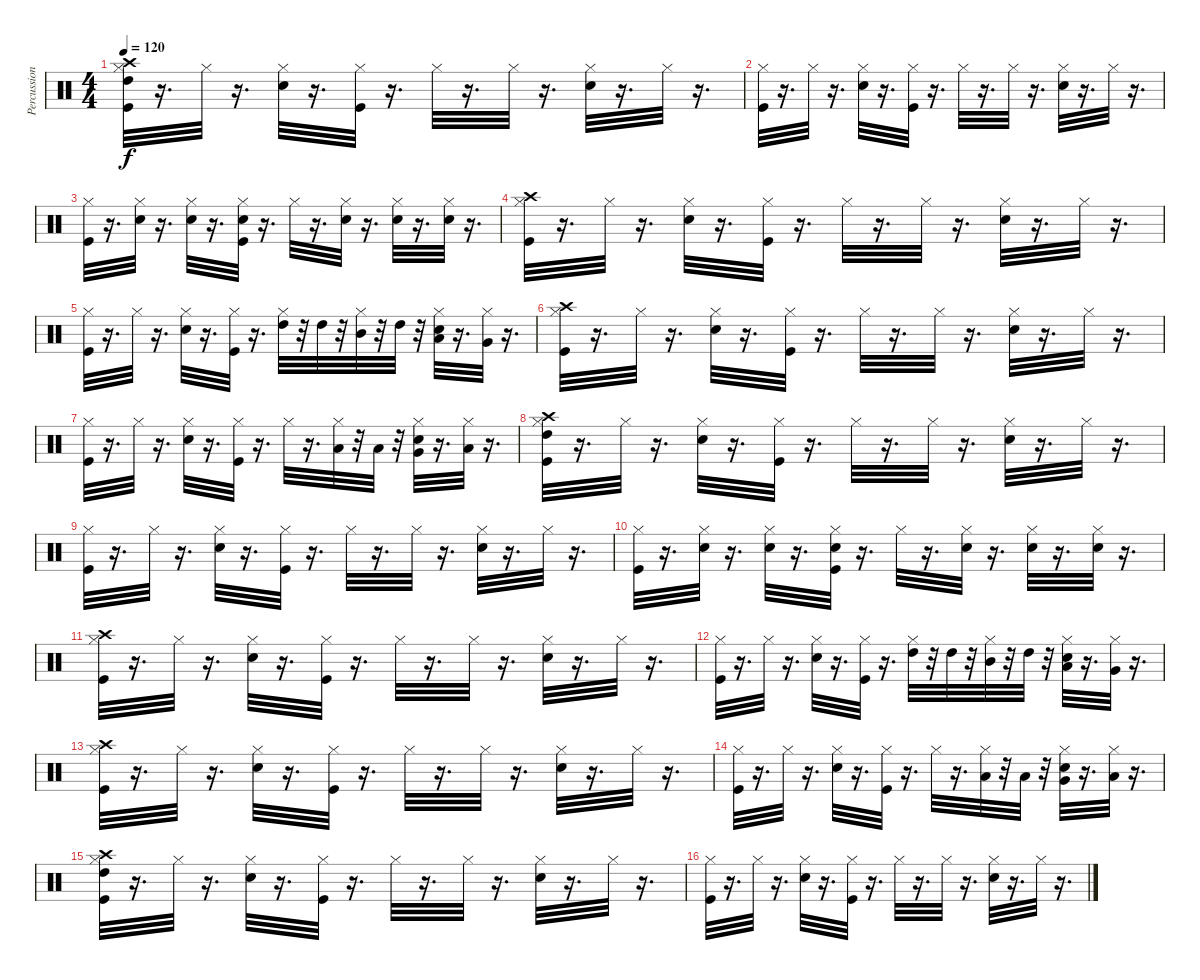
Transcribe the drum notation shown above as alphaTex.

\track ("Percussion" "Percussion") {instrument percussion}
\staff {score}
\articulation defaults
\ts (4 4)
\tempo 120
\clef neutral
\ks c
("Kick (hit)" "Hi-Hat (closed)" "High Tom (hit)" "Crash high (hit)").32{dy f} r.16{d} "Hi-Hat (closed)".32 r.16{d} ("Electric Snare (hit)" "Hi-Hat (closed)").32 r.16{d} ("Kick (hit)" "Hi-Hat (closed)").32 r.16{d} "Hi-Hat (closed)".32 r.16{d} "Hi-Hat (closed)".32 r.16{d} ("Electric Snare (hit)" "Hi-Hat (closed)").32 r.16{d} "Hi-Hat (closed)".32 r.16{d} |
("Kick (hit)" "Hi-Hat (closed)").32 r.16{d} "Hi-Hat (closed)".32 r.16{d} ("Electric Snare (hit)" "Hi-Hat (closed)").32 r.16{d} ("Kick (hit)" "Hi-Hat (closed)").32 r.16{d} "Hi-Hat (closed)".32 r.16{d} "Hi-Hat (closed)".32 r.16{d} ("Electric Snare (hit)" "Hi-Hat (closed)").32 r.16{d} "Hi-Hat (closed)".32 r.16{d} |
("Kick (hit)" "Hi-Hat (closed)").32 r.16{d} ("Hi-Hat (closed)" "Electric Snare (hit)").32 r.16{d} ("Electric Snare (hit)" "Hi-Hat (closed)").32 r.16{d} ("Kick (hit)" "Hi-Hat (closed)" "Electric Snare (hit)").32 r.16{d} "Hi-Hat (closed)".32 r.16{d} ("Hi-Hat (closed)" "Electric Snare (hit)").32 r.16{d} ("Electric Snare (hit)" "Hi-Hat (closed)").32 r.16{d} ("Hi-Hat (closed)" "Electric Snare (hit)").32 r.16{d} |
("Kick (hit)" "Hi-Hat (closed)" "Crash high (hit)").32 r.16{d} "Hi-Hat (closed)".32 r.16{d} ("Electric Snare (hit)" "Hi-Hat (closed)").32 r.16{d} ("Kick (hit)" "Hi-Hat (closed)").32 r.16{d} "Hi-Hat (closed)".32 r.16{d} "Hi-Hat (closed)".32 r.16{d} ("Electric Snare (hit)" "Hi-Hat (closed)").32 r.16{d} "Hi-Hat (closed)".32 r.16{d} |
("Kick (hit)" "Hi-Hat (closed)").32 r.16{d} "Hi-Hat (closed)".32 r.16{d} ("Electric Snare (hit)" "Hi-Hat (closed)").32 r.16{d} ("Kick (hit)" "Hi-Hat (closed)").32 r.16{d} ("Hi-Hat (closed)" "High Tom (hit)").32 r.32 "High Tom (hit)".32 r.32 ("Hi-Hat (closed)" "Mid Tom (hit)").32 r.32 "High Tom (hit)".32 r.32 ("Electric Snare (hit)" "Hi-Hat (closed)" "Low Tom (hit)").32 r.16{d} ("Hi-Hat (closed)" "Very Low Tom (hit)").32 r.16{d} |
("Kick (hit)" "Hi-Hat (closed)" "Crash high (hit)").32 r.16{d} "Hi-Hat (closed)".32 r.16{d} ("Electric Snare (hit)" "Hi-Hat (closed)").32 r.16{d} ("Kick (hit)" "Hi-Hat (closed)").32 r.16{d} "Hi-Hat (closed)".32 r.16{d} "Hi-Hat (closed)".32 r.16{d} ("Electric Snare (hit)" "Hi-Hat (closed)").32 r.16{d} "Hi-Hat (closed)".32 r.16{d} |
("Kick (hit)" "Hi-Hat (closed)").32 r.16{d} "Hi-Hat (closed)".32 r.16{d} ("Electric Snare (hit)" "Hi-Hat (closed)").32 r.16{d} ("Kick (hit)" "Hi-Hat (closed)").32 r.16{d} "Hi-Hat (closed)".32 r.16{d} ("Hi-Hat (closed)" "Low Tom (hit)").32 r.32 "Low Tom (hit)".32 r.32 ("Electric Snare (hit)" "Hi-Hat (closed)" "Very Low Tom (hit)").32 r.16{d} ("Hi-Hat (closed)" "Low Floor Tom (hit)").32 r.16{d} |
("Kick (hit)" "Hi-Hat (closed)" "High Tom (hit)" "Crash high (hit)").32 r.16{d} "Hi-Hat (closed)".32 r.16{d} ("Electric Snare (hit)" "Hi-Hat (closed)").32 r.16{d} ("Kick (hit)" "Hi-Hat (closed)").32 r.16{d} "Hi-Hat (closed)".32 r.16{d} "Hi-Hat (closed)".32 r.16{d} ("Electric Snare (hit)" "Hi-Hat (closed)").32 r.16{d} "Hi-Hat (closed)".32 r.16{d} |
("Kick (hit)" "Hi-Hat (closed)").32 r.16{d} "Hi-Hat (closed)".32 r.16{d} ("Electric Snare (hit)" "Hi-Hat (closed)").32 r.16{d} ("Kick (hit)" "Hi-Hat (closed)").32 r.16{d} "Hi-Hat (closed)".32 r.16{d} "Hi-Hat (closed)".32 r.16{d} ("Electric Snare (hit)" "Hi-Hat (closed)").32 r.16{d} "Hi-Hat (closed)".32 r.16{d} |
("Kick (hit)" "Hi-Hat (closed)").32 r.16{d} ("Hi-Hat (closed)" "Electric Snare (hit)").32 r.16{d} ("Electric Snare (hit)" "Hi-Hat (closed)").32 r.16{d} ("Kick (hit)" "Hi-Hat (closed)" "Electric Snare (hit)").32 r.16{d} "Hi-Hat (closed)".32 r.16{d} ("Hi-Hat (closed)" "Electric Snare (hit)").32 r.16{d} ("Electric Snare (hit)" "Hi-Hat (closed)").32 r.16{d} ("Hi-Hat (closed)" "Electric Snare (hit)").32 r.16{d} |
("Kick (hit)" "Hi-Hat (closed)" "Crash high (hit)").32 r.16{d} "Hi-Hat (closed)".32 r.16{d} ("Electric Snare (hit)" "Hi-Hat (closed)").32 r.16{d} ("Kick (hit)" "Hi-Hat (closed)").32 r.16{d} "Hi-Hat (closed)".32 r.16{d} "Hi-Hat (closed)".32 r.16{d} ("Electric Snare (hit)" "Hi-Hat (closed)").32 r.16{d} "Hi-Hat (closed)".32 r.16{d} |
("Kick (hit)" "Hi-Hat (closed)").32 r.16{d} "Hi-Hat (closed)".32 r.16{d} ("Electric Snare (hit)" "Hi-Hat (closed)").32 r.16{d} ("Kick (hit)" "Hi-Hat (closed)").32 r.16{d} ("Hi-Hat (closed)" "High Tom (hit)").32 r.32 "High Tom (hit)".32 r.32 ("Hi-Hat (closed)" "Mid Tom (hit)").32 r.32 "High Tom (hit)".32 r.32 ("Electric Snare (hit)" "Hi-Hat (closed)" "Low Tom (hit)").32 r.16{d} ("Hi-Hat (closed)" "Very Low Tom (hit)").32 r.16{d} |
("Kick (hit)" "Hi-Hat (closed)" "Crash high (hit)").32 r.16{d} "Hi-Hat (closed)".32 r.16{d} ("Electric Snare (hit)" "Hi-Hat (closed)").32 r.16{d} ("Kick (hit)" "Hi-Hat (closed)").32 r.16{d} "Hi-Hat (closed)".32 r.16{d} "Hi-Hat (closed)".32 r.16{d} ("Electric Snare (hit)" "Hi-Hat (closed)").32 r.16{d} "Hi-Hat (closed)".32 r.16{d} |
("Kick (hit)" "Hi-Hat (closed)").32 r.16{d} "Hi-Hat (closed)".32 r.16{d} ("Electric Snare (hit)" "Hi-Hat (closed)").32 r.16{d} ("Kick (hit)" "Hi-Hat (closed)").32 r.16{d} "Hi-Hat (closed)".32 r.16{d} ("Hi-Hat (closed)" "Low Tom (hit)").32 r.32 "Low Tom (hit)".32 r.32 ("Electric Snare (hit)" "Hi-Hat (closed)" "Very Low Tom (hit)").32 r.16{d} ("Hi-Hat (closed)" "Low Floor Tom (hit)").32 r.16{d} |
("Kick (hit)" "Hi-Hat (closed)" "High Tom (hit)" "Crash high (hit)").32 r.16{d} "Hi-Hat (closed)".32 r.16{d} ("Electric Snare (hit)" "Hi-Hat (closed)").32 r.16{d} ("Kick (hit)" "Hi-Hat (closed)").32 r.16{d} "Hi-Hat (closed)".32 r.16{d} "Hi-Hat (closed)".32 r.16{d} ("Electric Snare (hit)" "Hi-Hat (closed)").32 r.16{d} "Hi-Hat (closed)".32 r.16{d} |
("Kick (hit)" "Hi-Hat (closed)").32 r.16{d} "Hi-Hat (closed)".32 r.16{d} ("Electric Snare (hit)" "Hi-Hat (closed)").32 r.16{d} ("Kick (hit)" "Hi-Hat (closed)").32 r.16{d} "Hi-Hat (closed)".32 r.16{d} "Hi-Hat (closed)".32 r.16{d} ("Electric Snare (hit)" "Hi-Hat (closed)").32 r.16{d} "Hi-Hat (closed)".32 r.16{d}
